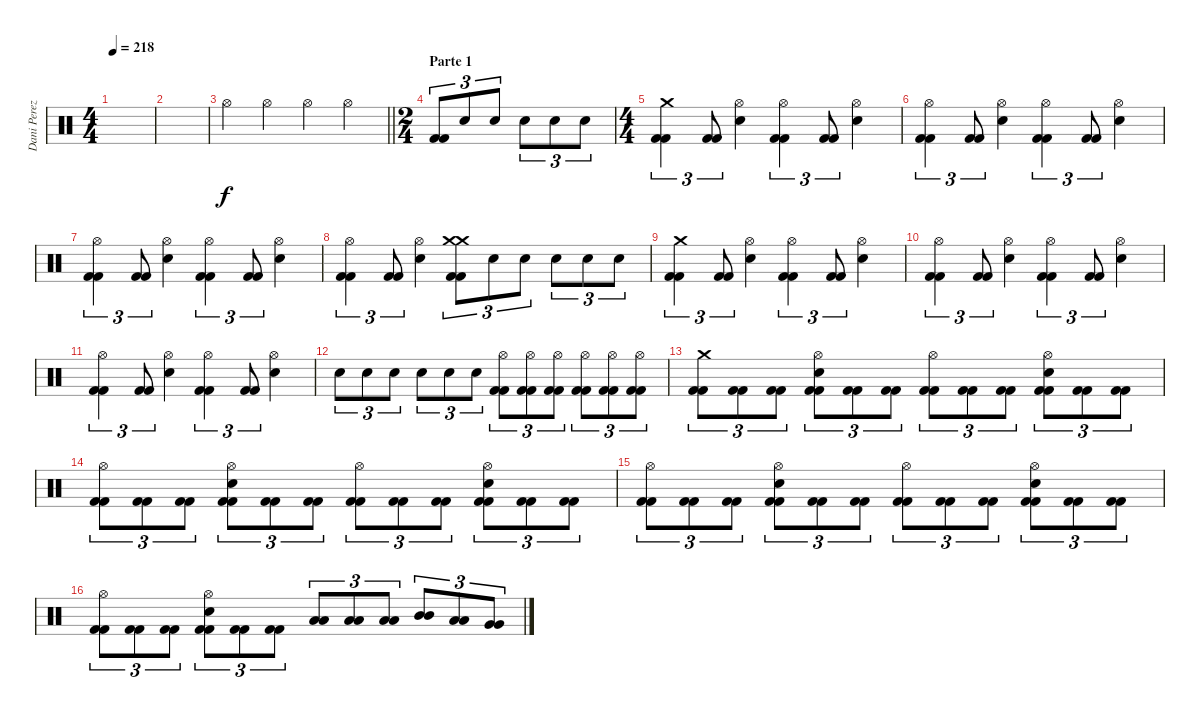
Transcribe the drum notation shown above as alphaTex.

\track ("Dani Perez" "Dani Perez") {instrument percussion}
\staff {score}
\articulation defaults
\ts (4 4)
\tempo 218
\clef neutral
\ks c
|
|
\barLineRight lightlight "Hi-Hat (open)".4 "Hi-Hat (open)".4 "Hi-Hat (open)".4 "Hi-Hat (open)".4
|
\ts (2 4)
\section ("" "Parte 1")
("Kick (hit) 2" "Kick (hit) 2").8{tu (3 2)} "Snare (hit) 2".8{tu (3 2)} "Snare (hit) 2".8{tu (3 2)} "Snare (hit) 2".8{tu (3 2)} "Snare (hit) 2".8{tu (3 2)} "Snare (hit) 2".8{tu (3 2)} |
\ts (4 4)
("Crash medium (hit)" "Kick (hit) 2" "Kick (hit) 2").4{tu (3 2)} ("Kick (hit) 2" "Kick (hit) 2").8{tu (3 2)} ("Hi-Hat (open)" "Snare (hit) 2").4 ("Hi-Hat (open)" "Kick (hit) 2" "Kick (hit) 2").4{tu (3 2)} ("Kick (hit) 2" "Kick (hit) 2").8{tu (3 2)} ("Hi-Hat (open)" "Snare (hit) 2").4 |
("Hi-Hat (open)" "Kick (hit) 2" "Kick (hit) 2").4{tu (3 2)} ("Kick (hit) 2" "Kick (hit) 2").8{tu (3 2)} ("Hi-Hat (open)" "Snare (hit) 2").4 ("Hi-Hat (open)" "Kick (hit) 2" "Kick (hit) 2").4{tu (3 2)} ("Kick (hit) 2" "Kick (hit) 2").8{tu (3 2)} ("Hi-Hat (open)" "Snare (hit) 2").4 |
("Hi-Hat (open)" "Kick (hit) 2" "Kick (hit) 2").4{tu (3 2)} ("Kick (hit) 2" "Kick (hit) 2").8{tu (3 2)} ("Hi-Hat (open)" "Snare (hit) 2").4 ("Hi-Hat (open)" "Kick (hit) 2" "Kick (hit) 2").4{tu (3 2)} ("Kick (hit) 2" "Kick (hit) 2").8{tu (3 2)} ("Hi-Hat (open)" "Snare (hit) 2").4 |
("Hi-Hat (open)" "Kick (hit) 2" "Kick (hit) 2").4{tu (3 2)} ("Kick (hit) 2" "Kick (hit) 2").8{tu (3 2)} ("Snare (hit) 2" "Hi-Hat (open)").4 ("Crash medium (hit)" "Crash medium (hit)" "Kick (hit) 2" "Kick (hit) 2").8{tu (3 2)} "Snare (hit) 2".8{tu (3 2)} "Snare (hit) 2".8{tu (3 2)} "Snare (hit) 2".8{tu (3 2)} "Snare (hit) 2".8{tu (3 2)} "Snare (hit) 2".8{tu (3 2)} |
("Crash medium (hit)" "Kick (hit) 2" "Kick (hit) 2").4{tu (3 2)} ("Kick (hit) 2" "Kick (hit) 2").8{tu (3 2)} ("Hi-Hat (open)" "Snare (hit) 2").4 ("Hi-Hat (open)" "Kick (hit) 2" "Kick (hit) 2").4{tu (3 2)} ("Kick (hit) 2" "Kick (hit) 2").8{tu (3 2)} ("Hi-Hat (open)" "Snare (hit) 2").4 |
("Hi-Hat (open)" "Kick (hit) 2" "Kick (hit) 2").4{tu (3 2)} ("Kick (hit) 2" "Kick (hit) 2").8{tu (3 2)} ("Hi-Hat (open)" "Snare (hit) 2").4 ("Hi-Hat (open)" "Kick (hit) 2" "Kick (hit) 2").4{tu (3 2)} ("Kick (hit) 2" "Kick (hit) 2").8{tu (3 2)} ("Hi-Hat (open)" "Snare (hit) 2").4 |
("Hi-Hat (open)" "Kick (hit) 2" "Kick (hit) 2").4{tu (3 2)} ("Kick (hit) 2" "Kick (hit) 2").8{tu (3 2)} ("Hi-Hat (open)" "Snare (hit) 2").4 ("Hi-Hat (open)" "Kick (hit) 2" "Kick (hit) 2").4{tu (3 2)} ("Kick (hit) 2" "Kick (hit) 2").8{tu (3 2)} ("Hi-Hat (open)" "Snare (hit) 2").4 |
"Snare (hit) 2".8{tu (3 2)} "Snare (hit) 2".8{tu (3 2)} "Snare (hit) 2".8{tu (3 2)} "Snare (hit) 2".8{tu (3 2)} "Snare (hit) 2".8{tu (3 2)} "Snare (hit) 2".8{tu (3 2)} ("Hi-Hat (open)" "Kick (hit) 2" "Kick (hit) 2").8{tu (3 2)} ("Hi-Hat (open)" "Kick (hit) 2" "Kick (hit) 2").8{tu (3 2)} ("Hi-Hat (open)" "Kick (hit) 2" "Kick (hit) 2").8{tu (3 2)} ("Hi-Hat (open)" "Kick (hit) 2" "Kick (hit) 2").8{tu (3 2)} ("Hi-Hat (open)" "Kick (hit) 2" "Kick (hit) 2").8{tu (3 2)} ("Hi-Hat (open)" "Kick (hit) 2" "Kick (hit) 2").8{tu (3 2)} |
("Crash medium (hit)" "Kick (hit) 2" "Kick (hit) 2").8{tu (3 2)} ("Kick (hit) 2" "Kick (hit) 2").8{tu (3 2)} ("Kick (hit) 2" "Kick (hit) 2").8{tu (3 2)} ("Hi-Hat (open)" "Snare (hit) 2" "Kick (hit) 2" "Kick (hit) 2").8{tu (3 2)} ("Kick (hit) 2" "Kick (hit) 2").8{tu (3 2)} ("Kick (hit) 2" "Kick (hit) 2").8{tu (3 2)} ("Hi-Hat (open)" "Kick (hit) 2" "Kick (hit) 2").8{tu (3 2)} ("Kick (hit) 2" "Kick (hit) 2").8{tu (3 2)} ("Kick (hit) 2" "Kick (hit) 2").8{tu (3 2)} ("Hi-Hat (open)" "Snare (hit) 2" "Kick (hit) 2" "Kick (hit) 2").8{tu (3 2)} ("Kick (hit) 2" "Kick (hit) 2").8{tu (3 2)} ("Kick (hit) 2" "Kick (hit) 2").8{tu (3 2)} |
("Hi-Hat (open)" "Kick (hit) 2" "Kick (hit) 2").8{tu (3 2)} ("Kick (hit) 2" "Kick (hit) 2").8{tu (3 2)} ("Kick (hit) 2" "Kick (hit) 2").8{tu (3 2)} ("Hi-Hat (open)" "Snare (hit) 2" "Kick (hit) 2" "Kick (hit) 2").8{tu (3 2)} ("Kick (hit) 2" "Kick (hit) 2").8{tu (3 2)} ("Kick (hit) 2" "Kick (hit) 2").8{tu (3 2)} ("Hi-Hat (open)" "Kick (hit) 2" "Kick (hit) 2").8{tu (3 2)} ("Kick (hit) 2" "Kick (hit) 2").8{tu (3 2)} ("Kick (hit) 2" "Kick (hit) 2").8{tu (3 2)} ("Hi-Hat (open)" "Snare (hit) 2" "Kick (hit) 2" "Kick (hit) 2").8{tu (3 2)} ("Kick (hit) 2" "Kick (hit) 2").8{tu (3 2)} ("Kick (hit) 2" "Kick (hit) 2").8{tu (3 2)} |
("Hi-Hat (open)" "Kick (hit) 2" "Kick (hit) 2").8{tu (3 2)} ("Kick (hit) 2" "Kick (hit) 2").8{tu (3 2)} ("Kick (hit) 2" "Kick (hit) 2").8{tu (3 2)} ("Hi-Hat (open)" "Snare (hit) 2" "Kick (hit) 2" "Kick (hit) 2").8{tu (3 2)} ("Kick (hit) 2" "Kick (hit) 2").8{tu (3 2)} ("Kick (hit) 2" "Kick (hit) 2").8{tu (3 2)} ("Hi-Hat (open)" "Kick (hit) 2" "Kick (hit) 2").8{tu (3 2)} ("Kick (hit) 2" "Kick (hit) 2").8{tu (3 2)} ("Kick (hit) 2" "Kick (hit) 2").8{tu (3 2)} ("Hi-Hat (open)" "Snare (hit) 2" "Kick (hit) 2" "Kick (hit) 2").8{tu (3 2)} ("Kick (hit) 2" "Kick (hit) 2").8{tu (3 2)} ("Kick (hit) 2" "Kick (hit) 2").8{tu (3 2)} |
("Hi-Hat (open)" "Kick (hit) 2" "Kick (hit) 2").8{tu (3 2)} ("Kick (hit) 2" "Kick (hit) 2").8{tu (3 2)} ("Kick (hit) 2" "Kick (hit) 2").8{tu (3 2)} ("Hi-Hat (open)" "Snare (hit) 2" "Kick (hit) 2" "Kick (hit) 2").8{tu (3 2)} ("Kick (hit) 2" "Kick (hit) 2").8{tu (3 2)} ("Kick (hit) 2" "Kick (hit) 2").8{tu (3 2)} ("Low Tom (hit)" "Low Tom (hit)").8{tu (3 2)} ("Low Tom (hit)" "Low Tom (hit)").8{tu (3 2)} ("Low Tom (hit)" "Low Tom (hit)").8{tu (3 2)} ("Mid Tom (hit)" "Mid Tom (hit)").8{tu (3 2)} ("Low Tom (hit)" "Low Tom (hit)").8{tu (3 2)} ("Very Low Tom (hit)" "Very Low Tom (hit)").8{tu (3 2)}
